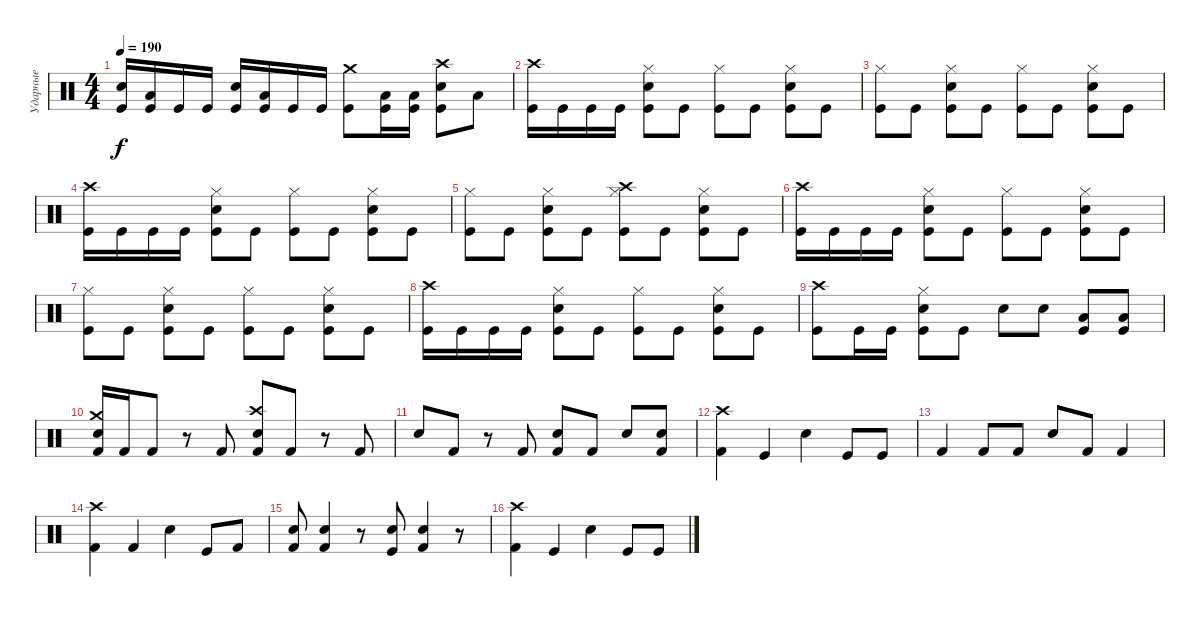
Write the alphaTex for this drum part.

\track ("Ударные" "Ударные") {instrument percussion}
\staff {score}
\articulation defaults
\ts (4 4)
\tempo 190
\clef neutral
\ks c
("Electric Snare (hit)" "Kick (hit)").16{dy f} ("Low Tom (hit)" "Kick (hit)").16 "Kick (hit)".16 "Kick (hit)".16 ("Electric Snare (hit)" "Kick (hit)").16 ("Low Tom (hit)" "Kick (hit)").16 "Kick (hit)".16 "Kick (hit)".16 ("Crash medium (hit)" "Kick (hit)").8 ("Low Tom (hit)" "Kick (hit)").16 ("Low Tom (hit)" "Kick (hit)").16 ("Crash high (hit)" "Electric Snare (hit)" "Kick (hit)").8 "Low Tom (hit)".8 |
("Crash high (hit)" "Kick (hit)").16 "Kick (hit)".16 "Kick (hit)".16 "Kick (hit)".16 ("Hi-Hat (closed)" "Electric Snare (hit)" "Kick (hit)").8 "Kick (hit)".8 ("Hi-Hat (closed)" "Kick (hit)").8 "Kick (hit)".8 ("Hi-Hat (closed)" "Electric Snare (hit)" "Kick (hit)").8 "Kick (hit)".8 |
("Hi-Hat (closed)" "Kick (hit)").8 "Kick (hit)".8 ("Hi-Hat (closed)" "Electric Snare (hit)" "Kick (hit)").8 "Kick (hit)".8 ("Hi-Hat (closed)" "Kick (hit)").8 "Kick (hit)".8 ("Hi-Hat (closed)" "Electric Snare (hit)" "Kick (hit)").8 "Kick (hit)".8 |
("Crash high (hit)" "Kick (hit)").16 "Kick (hit)".16 "Kick (hit)".16 "Kick (hit)".16 ("Hi-Hat (closed)" "Electric Snare (hit)" "Kick (hit)").8 "Kick (hit)".8 ("Hi-Hat (closed)" "Kick (hit)").8 "Kick (hit)".8 ("Hi-Hat (closed)" "Electric Snare (hit)" "Kick (hit)").8 "Kick (hit)".8 |
("Hi-Hat (closed)" "Kick (hit)").8 "Kick (hit)".8 ("Hi-Hat (closed)" "Electric Snare (hit)" "Kick (hit)").8 "Kick (hit)".8 ("Crash high (hit)" "Hi-Hat (closed)" "Kick (hit)").8 "Kick (hit)".8 ("Hi-Hat (closed)" "Electric Snare (hit)" "Kick (hit)").8 "Kick (hit)".8 |
("Crash high (hit)" "Kick (hit)").16 "Kick (hit)".16 "Kick (hit)".16 "Kick (hit)".16 ("Hi-Hat (closed)" "Electric Snare (hit)" "Kick (hit)").8 "Kick (hit)".8 ("Hi-Hat (closed)" "Kick (hit)").8 "Kick (hit)".8 ("Hi-Hat (closed)" "Electric Snare (hit)" "Kick (hit)").8 "Kick (hit)".8 |
("Hi-Hat (closed)" "Kick (hit)").8 "Kick (hit)".8 ("Hi-Hat (closed)" "Electric Snare (hit)" "Kick (hit)").8 "Kick (hit)".8 ("Hi-Hat (closed)" "Kick (hit)").8 "Kick (hit)".8 ("Hi-Hat (closed)" "Electric Snare (hit)" "Kick (hit)").8 "Kick (hit)".8 |
("Crash high (hit)" "Kick (hit)").16 "Kick (hit)".16 "Kick (hit)".16 "Kick (hit)".16 ("Hi-Hat (closed)" "Electric Snare (hit)" "Kick (hit)").8 "Kick (hit)".8 ("Hi-Hat (closed)" "Kick (hit)").8 "Kick (hit)".8 ("Hi-Hat (closed)" "Electric Snare (hit)" "Kick (hit)").8 "Kick (hit)".8 |
("Crash high (hit)" "Kick (hit)").8 "Kick (hit)".16 "Kick (hit)".16 ("Hi-Hat (closed)" "Electric Snare (hit)" "Kick (hit)").8 "Kick (hit)".8 "Electric Snare (hit)".8 "Electric Snare (hit)".8 ("Low Tom (hit)" "Kick (hit)").8 ("Low Tom (hit)" "Kick (hit)").8 |
("Crash medium (hit)" "Electric Snare (hit)" "Kick (hit) 2").16 "Kick (hit) 2".16 "Kick (hit) 2".8 r.8 "Kick (hit) 2".8 ("Crash high (hit)" "Electric Snare (hit)" "Kick (hit) 2").8 "Kick (hit) 2".8 r.8 "Kick (hit) 2".8 |
"Electric Snare (hit)".8 "Kick (hit) 2".8 r.8 "Kick (hit) 2".8 ("Electric Snare (hit)" "Kick (hit) 2").8 "Kick (hit) 2".8 "Electric Snare (hit)".8 ("Electric Snare (hit)" "Kick (hit) 2").8 |
("Crash high (hit)" "Kick (hit) 2").4 "Kick (hit)".4 "Electric Snare (hit)".4 "Kick (hit)".8 "Kick (hit)".8 |
"Kick (hit) 2".4 "Kick (hit) 2".8 "Kick (hit) 2".8 "Electric Snare (hit)".8 "Kick (hit) 2".8 "Kick (hit) 2".4 |
("Crash high (hit)" "Kick (hit) 2").4 "Kick (hit) 2".4 "Electric Snare (hit)".4 "Kick (hit)".8 "Kick (hit) 2".8 |
("Electric Snare (hit)" "Kick (hit) 2").8 ("Electric Snare (hit)" "Kick (hit) 2").4 r.8 ("Electric Snare (hit)" "Kick (hit)").8 ("Electric Snare (hit)" "Kick (hit) 2").4 r.8 |
("Crash high (hit)" "Kick (hit) 2").4 "Kick (hit)".4 "Electric Snare (hit)".4 "Kick (hit)".8 "Kick (hit)".8
